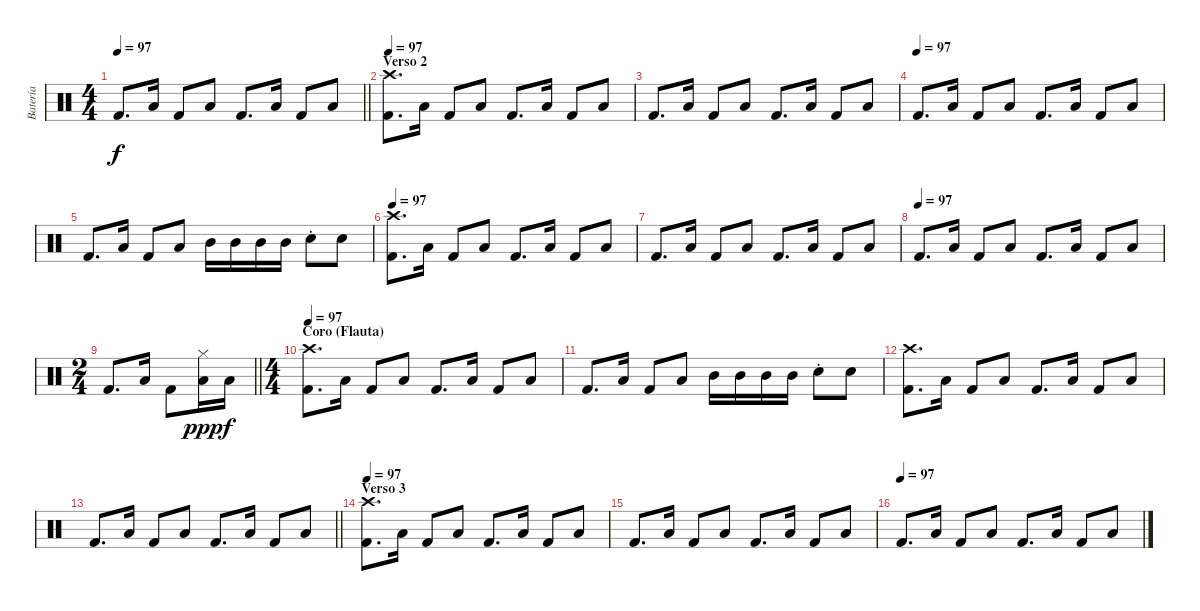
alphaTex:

\track ("Batería" "Batería") {instrument percussion}
\staff {score}
\articulation defaults
\ts (4 4)
\tempo 97
\clef neutral
\barLineRight lightlight
\ks c "Kick (hit) 2".8{d dy f} "Low Tom (hit)".16 "Kick (hit) 2".8 "Low Tom (hit)".8 "Kick (hit) 2".8{d} "Low Tom (hit)".16 "Kick (hit) 2".8 "Low Tom (hit)".8
|
\section ("" "Verso 2")
\tempo 97
("Crash high (hit)" "Kick (hit) 2").8{d} "Low Tom (hit)".16 "Kick (hit) 2".8 "Low Tom (hit)".8 "Kick (hit) 2".8{d} "Low Tom (hit)".16 "Kick (hit) 2".8 "Low Tom (hit)".8 |
"Kick (hit) 2".8{d} "Low Tom (hit)".16 "Kick (hit) 2".8 "Low Tom (hit)".8 "Kick (hit) 2".8{d} "Low Tom (hit)".16 "Kick (hit) 2".8 "Low Tom (hit)".8 |
\tempo (97)
"Kick (hit) 2".8{d} "Low Tom (hit)".16 "Kick (hit) 2".8 "Low Tom (hit)".8 "Kick (hit) 2".8{d} "Low Tom (hit)".16 "Kick (hit) 2".8 "Low Tom (hit)".8 |
"Kick (hit) 2".8{d} "Low Tom (hit)".16 "Kick (hit) 2".8 "Low Tom (hit)".8 "Mid Tom (hit)".16 "Mid Tom (hit)".16 "Mid Tom (hit)".16 "Mid Tom (hit)".16 "Snare (hit) 2"{st}.8 "Snare (hit) 2".8 |
\tempo 97
("Crash high (hit)" "Kick (hit) 2").8{d} "Low Tom (hit)".16 "Kick (hit) 2".8 "Low Tom (hit)".8 "Kick (hit) 2".8{d} "Low Tom (hit)".16 "Kick (hit) 2".8 "Low Tom (hit)".8 |
"Kick (hit) 2".8{d} "Low Tom (hit)".16 "Kick (hit) 2".8 "Low Tom (hit)".8 "Kick (hit) 2".8{d} "Low Tom (hit)".16 "Kick (hit) 2".8 "Low Tom (hit)".8 |
\tempo (97)
"Kick (hit) 2".8{d} "Low Tom (hit)".16 "Kick (hit) 2".8 "Low Tom (hit)".8 "Kick (hit) 2".8{d} "Low Tom (hit)".16 "Kick (hit) 2".8 "Low Tom (hit)".8 |
\ts (2 4)
\barLineRight lightlight "Kick (hit) 2".8{d} "Low Tom (hit)".16 "Kick (hit) 2".8
("Low Tom (hit)" "Hi-Hat (closed)").16{dy ppp} "Low Tom (hit)".16{dy f} |
\ts (4 4)
\section ("" "Coro (Flauta)")
\tempo 97
("Crash high (hit)" "Kick (hit) 2").8{d} "Low Tom (hit)".16 "Kick (hit) 2".8 "Low Tom (hit)".8 "Kick (hit) 2".8{d} "Low Tom (hit)".16 "Kick (hit) 2".8 "Low Tom (hit)".8 |
"Kick (hit) 2".8{d} "Low Tom (hit)".16 "Kick (hit) 2".8 "Low Tom (hit)".8 "Mid Tom (hit)".16 "Mid Tom (hit)".16 "Mid Tom (hit)".16 "Mid Tom (hit)".16 "Snare (hit) 2"{st}.8 "Snare (hit) 2".8 |
("Kick (hit) 2" "Crash high (hit)").8{d} "Low Tom (hit)".16 "Kick (hit) 2".8 "Low Tom (hit)".8 "Kick (hit) 2".8{d} "Low Tom (hit)".16 "Kick (hit) 2".8 "Low Tom (hit)".8 |
\barLineRight lightlight "Kick (hit) 2".8{d} "Low Tom (hit)".16 "Kick (hit) 2".8 "Low Tom (hit)".8 "Kick (hit) 2".8{d} "Low Tom (hit)".16 "Kick (hit) 2".8 "Low Tom (hit)".8
|
\section ("" "Verso 3")
\tempo 97
("Crash high (hit)" "Kick (hit) 2").8{d} "Low Tom (hit)".16 "Kick (hit) 2".8 "Low Tom (hit)".8 "Kick (hit) 2".8{d} "Low Tom (hit)".16 "Kick (hit) 2".8 "Low Tom (hit)".8 |
"Kick (hit) 2".8{d} "Low Tom (hit)".16 "Kick (hit) 2".8 "Low Tom (hit)".8 "Kick (hit) 2".8{d} "Low Tom (hit)".16 "Kick (hit) 2".8 "Low Tom (hit)".8 |
\tempo (97)
"Kick (hit) 2".8{d} "Low Tom (hit)".16 "Kick (hit) 2".8 "Low Tom (hit)".8 "Kick (hit) 2".8{d} "Low Tom (hit)".16 "Kick (hit) 2".8 "Low Tom (hit)".8
